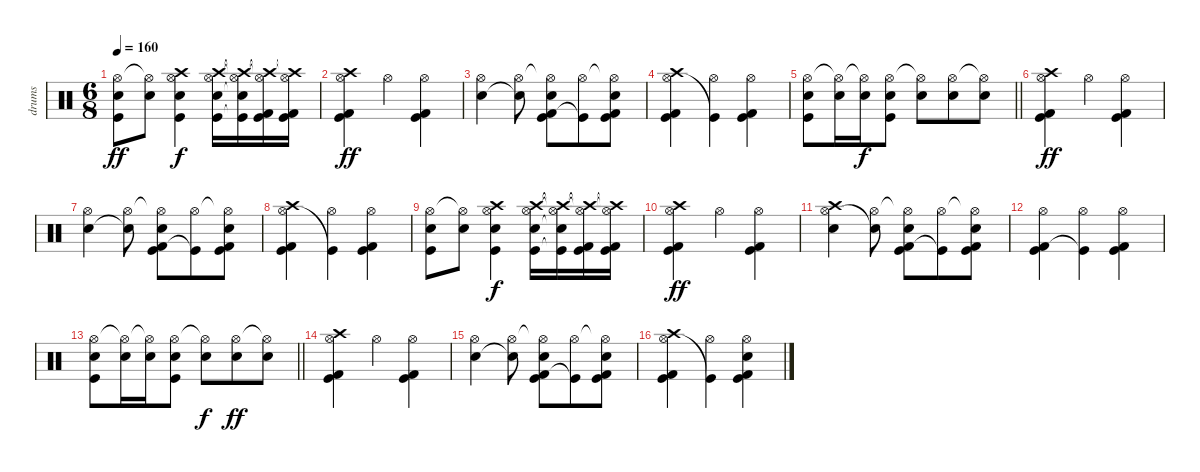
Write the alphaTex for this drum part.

\track ("drums" "drums") {instrument percussion}
\staff {score}
\articulation defaults
\ts (6 8)
\tempo 160
\clef neutral
\ks c
("Hi-Hat (open)" "Electric Snare (hit)" "Kick (hit)").8{dy ff} ("Hi-Hat (open)"{t} "Electric Snare (hit)").8 ("Crash high (hit)" "Hi-Hat (open)" "Electric Snare (hit)" "Kick (hit)").4{dy f} ("Crash high (hit)" "Hi-Hat (open)" "Electric Snare (hit)" "Kick (hit)").16 ("Crash high (hit)"{t} "Hi-Hat (open)"{t} "Electric Snare (hit)"{t} "Kick (hit)"{t}).16 ("Crash high (hit)"{t} "Hi-Hat (open)"{t} "Kick (hit) 2" "Kick (hit)").16 ("Crash high (hit)"{t} "Hi-Hat (open)"{t} "Kick (hit) 2" "Kick (hit)").16 |
("Crash high (hit)" "Hi-Hat (open)" "Kick (hit) 2" "Kick (hit)").4{dy ff} "Hi-Hat (open)".4 ("Hi-Hat (open)" "Kick (hit) 2" "Kick (hit)").4 |
("Hi-Hat (open)" "Electric Snare (hit)").4 ("Hi-Hat (open)" "Electric Snare (hit)"{t}).8 ("Hi-Hat (open)"{t} "Kick (hit) 2" "Electric Snare (hit)" "Kick (hit)").8 ("Hi-Hat (open)" "Kick (hit)"{t}).8 ("Hi-Hat (open)"{t} "Kick (hit) 2" "Electric Snare (hit)" "Kick (hit)").8 |
("Crash high (hit)" "Hi-Hat (open)" "Kick (hit) 2" "Kick (hit)").4 ("Hi-Hat (open)" "Kick (hit)"{t}).4 ("Hi-Hat (open)" "Kick (hit) 2" "Kick (hit)").4 |
\barLineRight lightlight
("Hi-Hat (open)" "Electric Snare (hit)" "Kick (hit)").8 ("Hi-Hat (open)"{t} "Electric Snare (hit)").16 ("Hi-Hat (open)"{t} "Electric Snare (hit)").16{dy f} ("Hi-Hat (open)" "Electric Snare (hit)" "Kick (hit)").8 ("Hi-Hat (open)"{t} "Electric Snare (hit)").8 ("Hi-Hat (open)" "Electric Snare (hit)").8 ("Hi-Hat (open)"{t} "Electric Snare (hit)").8 |
("Crash high (hit)" "Hi-Hat (open)" "Kick (hit) 2" "Kick (hit)").4{dy ff} "Hi-Hat (open)".4 ("Hi-Hat (open)" "Kick (hit) 2" "Kick (hit)").4 |
("Hi-Hat (open)" "Electric Snare (hit)").4 ("Hi-Hat (open)" "Electric Snare (hit)"{t}).8 ("Hi-Hat (open)"{t} "Kick (hit) 2" "Electric Snare (hit)" "Kick (hit)").8 ("Hi-Hat (open)" "Kick (hit)"{t}).8 ("Hi-Hat (open)"{t} "Kick (hit) 2" "Electric Snare (hit)" "Kick (hit)").8 |
("Crash high (hit)" "Hi-Hat (open)" "Kick (hit) 2" "Kick (hit)").4 ("Hi-Hat (open)" "Kick (hit)"{t}).4 ("Hi-Hat (open)" "Kick (hit) 2" "Kick (hit)").4 |
("Hi-Hat (open)" "Electric Snare (hit)" "Kick (hit)").8 ("Hi-Hat (open)"{t} "Electric Snare (hit)").8 ("Crash high (hit)" "Hi-Hat (open)" "Electric Snare (hit)" "Kick (hit)").4{dy f} ("Crash high (hit)" "Hi-Hat (open)" "Electric Snare (hit)" "Kick (hit)").16 ("Crash high (hit)"{t} "Hi-Hat (open)"{t} "Electric Snare (hit)"{t} "Kick (hit)"{t}).16 ("Crash high (hit)"{t} "Hi-Hat (open)"{t} "Kick (hit) 2" "Kick (hit)").16 ("Crash high (hit)"{t} "Hi-Hat (open)"{t} "Kick (hit) 2" "Kick (hit)").16 |
("Crash high (hit)" "Hi-Hat (open)" "Kick (hit) 2" "Kick (hit)").4{dy ff} "Hi-Hat (open)".4 ("Hi-Hat (open)" "Kick (hit) 2" "Kick (hit)").4 |
("Crash high (hit)" "Hi-Hat (open)" "Electric Snare (hit)").4 ("Hi-Hat (open)" "Electric Snare (hit)"{t}).8 ("Hi-Hat (open)"{t} "Kick (hit) 2" "Electric Snare (hit)" "Kick (hit)").8 ("Hi-Hat (open)" "Kick (hit)"{t}).8 ("Hi-Hat (open)"{t} "Kick (hit) 2" "Electric Snare (hit)" "Kick (hit)").8 |
("Hi-Hat (open)" "Kick (hit) 2" "Kick (hit)").4 ("Hi-Hat (open)" "Kick (hit)"{t}).4 ("Hi-Hat (open)" "Kick (hit) 2" "Kick (hit)").4 |
\barLineRight lightlight
("Hi-Hat (open)" "Electric Snare (hit)" "Kick (hit)").8 ("Hi-Hat (open)"{t} "Electric Snare (hit)").16 ("Hi-Hat (open)"{t} "Electric Snare (hit)").16 ("Hi-Hat (open)" "Electric Snare (hit)" "Kick (hit)").8 ("Hi-Hat (open)"{t} "Electric Snare (hit)").8{dy f} ("Hi-Hat (open)" "Electric Snare (hit)").8{dy ff} ("Hi-Hat (open)"{t} "Electric Snare (hit)").8 |
("Crash high (hit)" "Hi-Hat (open)" "Kick (hit) 2" "Kick (hit)").4 "Hi-Hat (open)".4 ("Hi-Hat (open)" "Kick (hit) 2" "Kick (hit)").4 |
("Hi-Hat (open)" "Electric Snare (hit)").4 ("Hi-Hat (open)" "Electric Snare (hit)"{t}).8 ("Hi-Hat (open)"{t} "Kick (hit) 2" "Electric Snare (hit)" "Kick (hit)").8 ("Hi-Hat (open)" "Kick (hit)"{t}).8 ("Hi-Hat (open)"{t} "Kick (hit) 2" "Electric Snare (hit)" "Kick (hit)").8 |
("Crash high (hit)" "Hi-Hat (open)" "Kick (hit) 2" "Kick (hit)").4 ("Hi-Hat (open)" "Kick (hit)"{t}).4 ("Hi-Hat (open)" "Electric Snare (hit)" "Kick (hit) 2" "Kick (hit)").4
